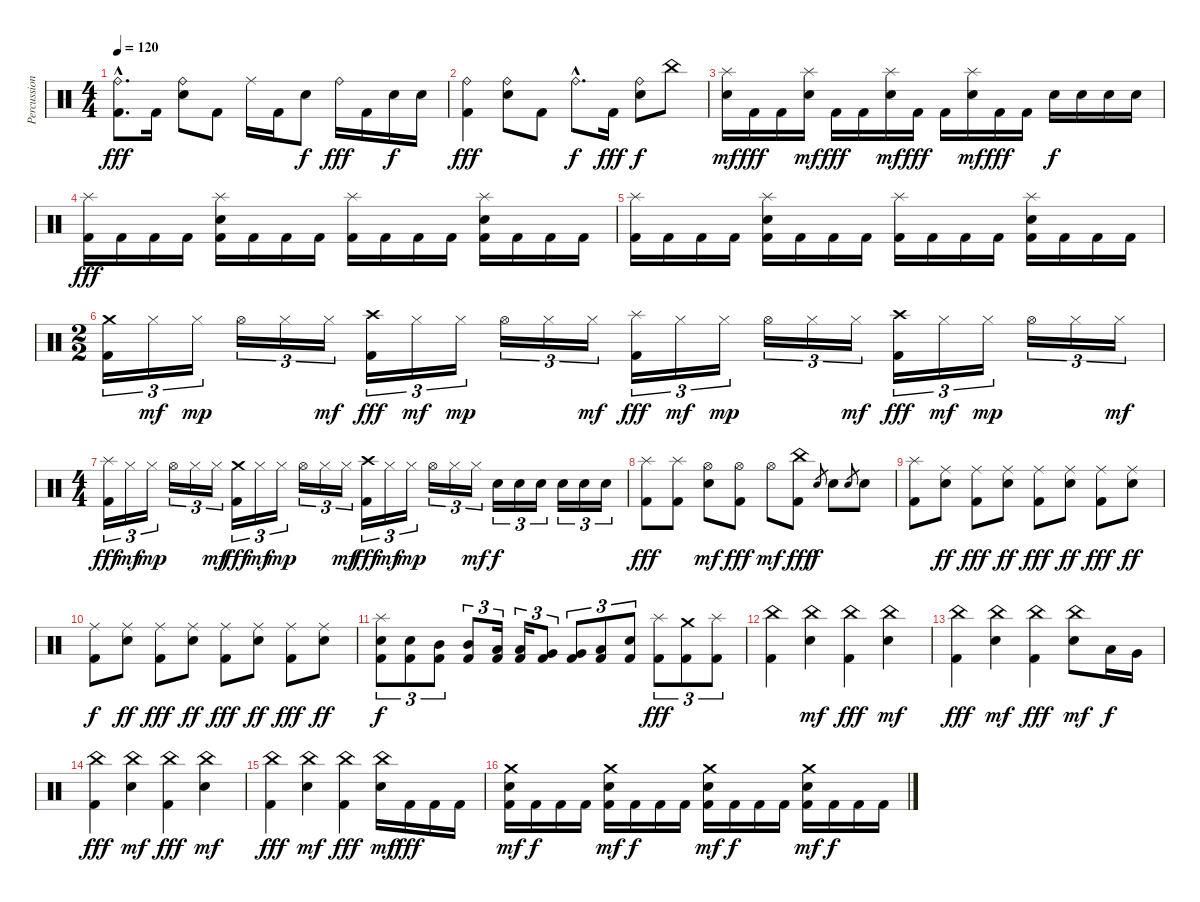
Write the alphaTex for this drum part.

\track ("Percussion" "Percussion") {instrument percussion}
\staff {score}
\articulation defaults
\ts (4 4)
\tempo 120
\clef neutral
\ks c
("Ride (bell)"{hac} "Kick (hit) 2"{hac}).8{d dy fff} "Kick (hit) 2".16 ("Ride (bell)" "Electric Snare (hit)").8 "Kick (hit) 2".8 "Ride (middle)".16 "Kick (hit) 2".16 "Electric Snare (hit)".8{dy f} "Ride (bell)".16{dy fff} "Kick (hit) 2".16 "Electric Snare (hit)".16{dy f} "Electric Snare (hit)".16 |
("Ride (bell)" "Kick (hit) 2").4{dy fff} ("Ride (bell)" "Electric Snare (hit)").8 "Kick (hit) 2".8 "Ride (bell)"{hac}.8{d dy f} "Kick (hit) 2".16{dy fff} ("Ride (bell)" "Electric Snare (hit)").8{dy f} "China (hit)".8 |
("Splash (hit)" "Electric Snare (hit)").16{dy mf} "Kick (hit) 2".16{dy fff} "Kick (hit) 2".16 ("Splash (hit)" "Electric Snare (hit)").16{dy mf} "Kick (hit) 2".16{dy fff} "Kick (hit) 2".16 ("Splash (hit)" "Electric Snare (hit)").16{dy mf} "Kick (hit) 2".16{dy fff} "Kick (hit) 2".16 ("Splash (hit)" "Electric Snare (hit)").16{dy mf} "Kick (hit) 2".16{dy fff} "Kick (hit) 2".16 "Electric Snare (hit)".16{dy f} "Electric Snare (hit)".16 "Electric Snare (hit)".16 "Electric Snare (hit)".16 |
("Splash (hit)" "Kick (hit) 2").16{dy fff} "Kick (hit) 2".16 "Kick (hit) 2".16 "Kick (hit) 2".16 ("Splash (hit)" "Electric Snare (hit)" "Kick (hit) 2").16 "Kick (hit) 2".16 "Kick (hit) 2".16 "Kick (hit) 2".16 ("Splash (hit)" "Kick (hit) 2").16 "Kick (hit) 2".16 "Kick (hit) 2".16 "Kick (hit) 2".16 ("Splash (hit)" "Electric Snare (hit)" "Kick (hit) 2").16 "Kick (hit) 2".16 "Kick (hit) 2".16 "Kick (hit) 2".16 |
("Splash (hit)" "Kick (hit) 2").16 "Kick (hit) 2".16 "Kick (hit) 2".16 "Kick (hit) 2".16 ("Splash (hit)" "Electric Snare (hit)" "Kick (hit) 2").16 "Kick (hit) 2".16 "Kick (hit) 2".16 "Kick (hit) 2".16 ("Splash (hit)" "Kick (hit) 2").16 "Kick (hit) 2".16 "Kick (hit) 2".16 "Kick (hit) 2".16 ("Splash (hit)" "Electric Snare (hit)" "Kick (hit) 2").16 "Kick (hit) 2".16 "Kick (hit) 2".16 "Kick (hit) 2".16 |
\ts (2 2)
("Crash medium (hit)" "Kick (hit) 2").16{tu (3 2)} "Hi-Hat (closed)".16{tu (3 2) dy mf} "Hi-Hat (closed)".16{tu (3 2) dy mp} "Hi-Hat (open)".16{tu (3 2)} "Hi-Hat (closed)".16{tu (3 2)} "Hi-Hat (closed)".16{tu (3 2) dy mf} ("Crash high (hit)" "Kick (hit) 2").16{tu (3 2) dy fff} "Hi-Hat (closed)".16{tu (3 2) dy mf} "Hi-Hat (closed)".16{tu (3 2) dy mp} "Hi-Hat (open)".16{tu (3 2)} "Hi-Hat (closed)".16{tu (3 2)} "Hi-Hat (closed)".16{tu (3 2) dy mf} ("Splash (hit)" "Kick (hit) 2").16{tu (3 2) dy fff} "Hi-Hat (closed)".16{tu (3 2) dy mf} "Hi-Hat (closed)".16{tu (3 2) dy mp} "Hi-Hat (open)".16{tu (3 2)} "Hi-Hat (closed)".16{tu (3 2)} "Hi-Hat (closed)".16{tu (3 2) dy mf} ("Crash high (hit)" "Kick (hit) 2").16{tu (3 2) dy fff} "Hi-Hat (closed)".16{tu (3 2) dy mf} "Hi-Hat (closed)".16{tu (3 2) dy mp} "Hi-Hat (open)".16{tu (3 2)} "Hi-Hat (closed)".16{tu (3 2)} "Hi-Hat (closed)".16{tu (3 2) dy mf} |
\ts (4 4)
("Splash (hit)" "Kick (hit) 2").16{tu (3 2) dy fff} "Hi-Hat (closed)".16{tu (3 2) dy mf} "Hi-Hat (closed)".16{tu (3 2) dy mp} "Hi-Hat (open)".16{tu (3 2)} "Hi-Hat (closed)".16{tu (3 2)} "Hi-Hat (closed)".16{tu (3 2) dy mf} ("Crash medium (hit)" "Kick (hit) 2").16{tu (3 2) dy fff} "Hi-Hat (closed)".16{tu (3 2) dy mf} "Hi-Hat (closed)".16{tu (3 2) dy mp} "Hi-Hat (open)".16{tu (3 2)} "Hi-Hat (closed)".16{tu (3 2)} "Hi-Hat (closed)".16{tu (3 2) dy mf} ("Crash high (hit)" "Kick (hit) 2").16{tu (3 2) dy fff} "Hi-Hat (closed)".16{tu (3 2) dy mf} "Hi-Hat (closed)".16{tu (3 2) dy mp} "Hi-Hat (open)".16{tu (3 2)} "Hi-Hat (closed)".16{tu (3 2)} "Hi-Hat (closed)".16{tu (3 2) dy mf} "Electric Snare (hit)".16{tu (3 2) dy f} "Electric Snare (hit)".16{tu (3 2)} "Electric Snare (hit)".16{tu (3 2)} "Electric Snare (hit)".16{tu (3 2)} "Electric Snare (hit)".16{tu (3 2)} "Electric Snare (hit)".16{tu (3 2)} |
("Splash (hit)" "Kick (hit) 2").8{dy fff} ("Splash (hit)" "Kick (hit) 2").8 ("Hi-Hat (open)" "Electric Snare (hit)").8{dy mf} ("Hi-Hat (open)" "Kick (hit) 2").8{dy fff} "Hi-Hat (open)".8{dy mf} ("China (hit)" "Kick (hit) 2").8{dy fff} "Electric Snare (hit)".8{gr dy f} "Electric Snare (hit)".8 "Electric Snare (hit)".8{gr} "Electric Snare (hit)".8 |
("Splash (hit)" "Kick (hit) 2").8 ("Ride (middle)" "Electric Snare (hit)").8{dy ff} ("Ride (middle)" "Kick (hit) 2").8{dy fff} ("Ride (middle)" "Electric Snare (hit)").8{dy ff} ("Ride (middle)" "Kick (hit) 2").8{dy fff} ("Ride (middle)" "Electric Snare (hit)").8{dy ff} ("Ride (middle)" "Kick (hit) 2").8{dy fff} ("Ride (middle)" "Electric Snare (hit)").8{dy ff} |
("Ride (middle)" "Kick (hit) 2").8{dy f} ("Ride (middle)" "Electric Snare (hit)").8{dy ff} ("Ride (middle)" "Kick (hit) 2").8{dy fff} ("Ride (middle)" "Electric Snare (hit)").8{dy ff} ("Ride (middle)" "Kick (hit) 2").8{dy fff} ("Ride (middle)" "Electric Snare (hit)").8{dy ff} ("Ride (middle)" "Kick (hit) 2").8{dy fff} ("Ride (middle)" "Electric Snare (hit)").8{dy ff} |
("Splash (hit)" "Electric Snare (hit)" "Kick (hit) 2").8{tu (3 2) dy f} ("Electric Snare (hit)" "Kick (hit) 2").8{tu (3 2)} ("Mid Tom (hit)" "Kick (hit) 2").8{tu (3 2)} ("Mid Tom (hit)" "Kick (hit) 2").8{tu (3 2)} ("Low Tom (hit)" "Kick (hit) 2").16{tu (3 2)} ("Low Tom (hit)" "Kick (hit) 2").16{tu (3 2)} ("Very Low Tom (hit)" "Kick (hit) 2").8{tu (3 2)} ("Very Low Tom (hit)" "Kick (hit) 2").8{tu (3 2)} ("Low Floor Tom (hit)" "Kick (hit) 2").8{tu (3 2)} ("Electric Snare (hit)" "Kick (hit) 2").8{tu (3 2)} ("Splash (hit)" "Kick (hit) 2").8{tu (3 2) dy fff} ("Crash medium (hit)" "Kick (hit) 2").8{tu (3 2)} ("Splash (hit)" "Kick (hit) 2").8{tu (3 2)} |
("China (hit)" "Kick (hit) 2").4 ("China (hit)" "Electric Snare (hit)").4{dy mf} ("China (hit)" "Kick (hit) 2").4{dy fff} ("China (hit)" "Electric Snare (hit)").4{dy mf} |
("China (hit)" "Kick (hit) 2").4{dy fff} ("China (hit)" "Electric Snare (hit)").4{dy mf} ("China (hit)" "Kick (hit) 2").4{dy fff} ("China (hit)" "Electric Snare (hit)").8{dy mf} "Low Tom (hit)".16{dy f} "Very Low Tom (hit)".16 |
("China (hit)" "Kick (hit) 2").4{dy fff} ("China (hit)" "Electric Snare (hit)").4{dy mf} ("China (hit)" "Kick (hit) 2").4{dy fff} ("China (hit)" "Electric Snare (hit)").4{dy mf} |
("China (hit)" "Kick (hit) 2").4{dy fff} ("China (hit)" "Electric Snare (hit)").4{dy mf} ("China (hit)" "Kick (hit) 2").4{dy fff} ("China (hit)" "Electric Snare (hit)").16{dy mf} "Kick (hit) 2".16{dy fff} "Kick (hit) 2".16 "Kick (hit) 2".16 |
("Crash medium (hit)" "Electric Snare (hit)" "Kick (hit) 2").16{dy mf} "Kick (hit) 2".16{dy f} "Kick (hit) 2".16 "Kick (hit) 2".16 ("Crash medium (hit)" "Electric Snare (hit)" "Kick (hit) 2").16{dy mf} "Kick (hit) 2".16{dy f} "Kick (hit) 2".16 "Kick (hit) 2".16 ("Crash medium (hit)" "Electric Snare (hit)" "Kick (hit) 2").16{dy mf} "Kick (hit) 2".16{dy f} "Kick (hit) 2".16 "Kick (hit) 2".16 ("Crash medium (hit)" "Electric Snare (hit)" "Kick (hit) 2").16{dy mf} "Kick (hit) 2".16{dy f} "Kick (hit) 2".16 "Kick (hit) 2".16
